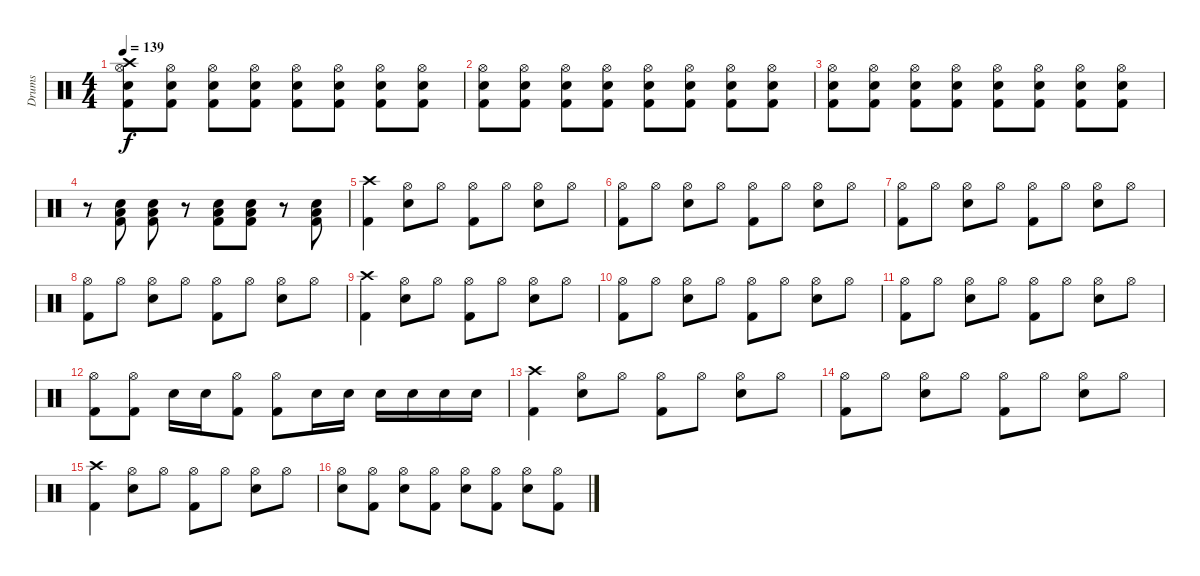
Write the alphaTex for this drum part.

\track ("Drums" "Drums") {instrument percussion}
\staff {score}
\articulation defaults
\ts (4 4)
\tempo 139
\clef neutral
\ks c
("Crash high (hit)" "Hi-Hat (open)" "Electric Snare (hit)" "Kick (hit) 2").8{dy f} ("Hi-Hat (open)" "Electric Snare (hit)" "Kick (hit) 2").8 ("Hi-Hat (open)" "Electric Snare (hit)" "Kick (hit) 2").8 ("Hi-Hat (open)" "Electric Snare (hit)" "Kick (hit) 2").8 ("Hi-Hat (open)" "Electric Snare (hit)" "Kick (hit) 2").8 ("Hi-Hat (open)" "Electric Snare (hit)" "Kick (hit) 2").8 ("Hi-Hat (open)" "Electric Snare (hit)" "Kick (hit) 2").8 ("Hi-Hat (open)" "Electric Snare (hit)" "Kick (hit) 2").8 |
("Hi-Hat (open)" "Electric Snare (hit)" "Kick (hit) 2").8 ("Hi-Hat (open)" "Electric Snare (hit)" "Kick (hit) 2").8 ("Hi-Hat (open)" "Electric Snare (hit)" "Kick (hit) 2").8 ("Hi-Hat (open)" "Electric Snare (hit)" "Kick (hit) 2").8 ("Hi-Hat (open)" "Electric Snare (hit)" "Kick (hit) 2").8 ("Hi-Hat (open)" "Electric Snare (hit)" "Kick (hit) 2").8 ("Hi-Hat (open)" "Electric Snare (hit)" "Kick (hit) 2").8 ("Hi-Hat (open)" "Electric Snare (hit)" "Kick (hit) 2").8 |
("Hi-Hat (open)" "Electric Snare (hit)" "Kick (hit) 2").8 ("Hi-Hat (open)" "Electric Snare (hit)" "Kick (hit) 2").8 ("Hi-Hat (open)" "Electric Snare (hit)" "Kick (hit) 2").8 ("Hi-Hat (open)" "Electric Snare (hit)" "Kick (hit) 2").8 ("Hi-Hat (open)" "Electric Snare (hit)" "Kick (hit) 2").8 ("Hi-Hat (open)" "Electric Snare (hit)" "Kick (hit) 2").8 ("Hi-Hat (open)" "Electric Snare (hit)" "Kick (hit) 2").8 ("Hi-Hat (open)" "Electric Snare (hit)" "Kick (hit) 2").8 |
r.8 ("Electric Snare (hit)" "Kick (hit) 2" "Low Floor Tom (hit)").8 ("Electric Snare (hit)" "Kick (hit) 2" "Low Floor Tom (hit)").8 r.8 ("Electric Snare (hit)" "Kick (hit) 2" "Low Floor Tom (hit)").8 ("Electric Snare (hit)" "Kick (hit) 2" "Low Floor Tom (hit)").8 r.8 ("Electric Snare (hit)" "Kick (hit) 2" "Low Floor Tom (hit)").8 |
("Crash high (hit)" "Kick (hit) 2").4 ("Hi-Hat (open)" "Electric Snare (hit)").8 "Hi-Hat (open)".8 ("Hi-Hat (open)" "Kick (hit) 2").8 "Hi-Hat (open)".8 ("Hi-Hat (open)" "Electric Snare (hit)").8 "Hi-Hat (open)".8 |
("Hi-Hat (open)" "Kick (hit) 2").8 "Hi-Hat (open)".8 ("Hi-Hat (open)" "Electric Snare (hit)").8 "Hi-Hat (open)".8 ("Hi-Hat (open)" "Kick (hit) 2").8 "Hi-Hat (open)".8 ("Hi-Hat (open)" "Electric Snare (hit)").8 "Hi-Hat (open)".8 |
("Hi-Hat (open)" "Kick (hit) 2").8 "Hi-Hat (open)".8 ("Hi-Hat (open)" "Electric Snare (hit)").8 "Hi-Hat (open)".8 ("Hi-Hat (open)" "Kick (hit) 2").8 "Hi-Hat (open)".8 ("Hi-Hat (open)" "Electric Snare (hit)").8 "Hi-Hat (open)".8 |
("Hi-Hat (open)" "Kick (hit) 2").8 "Hi-Hat (open)".8 ("Hi-Hat (open)" "Electric Snare (hit)").8 "Hi-Hat (open)".8 ("Hi-Hat (open)" "Kick (hit) 2").8 "Hi-Hat (open)".8 ("Hi-Hat (open)" "Electric Snare (hit)").8 "Hi-Hat (open)".8 |
("Crash high (hit)" "Kick (hit) 2").4 ("Hi-Hat (open)" "Electric Snare (hit)").8 "Hi-Hat (open)".8 ("Hi-Hat (open)" "Kick (hit) 2").8 "Hi-Hat (open)".8 ("Hi-Hat (open)" "Electric Snare (hit)").8 "Hi-Hat (open)".8 |
("Hi-Hat (open)" "Kick (hit) 2").8 "Hi-Hat (open)".8 ("Hi-Hat (open)" "Electric Snare (hit)").8 "Hi-Hat (open)".8 ("Hi-Hat (open)" "Kick (hit) 2").8 "Hi-Hat (open)".8 ("Hi-Hat (open)" "Electric Snare (hit)").8 "Hi-Hat (open)".8 |
("Hi-Hat (open)" "Kick (hit) 2").8 "Hi-Hat (open)".8 ("Hi-Hat (open)" "Electric Snare (hit)").8 "Hi-Hat (open)".8 ("Hi-Hat (open)" "Kick (hit) 2").8 "Hi-Hat (open)".8 ("Hi-Hat (open)" "Electric Snare (hit)").8 "Hi-Hat (open)".8 |
("Hi-Hat (open)" "Kick (hit) 2").8 ("Hi-Hat (open)" "Kick (hit) 2").8 "Electric Snare (hit)".16 "Electric Snare (hit)".16 ("Hi-Hat (open)" "Kick (hit) 2").8 ("Hi-Hat (open)" "Kick (hit) 2").8 "Electric Snare (hit)".16 "Electric Snare (hit)".16 "Electric Snare (hit)".16 "Electric Snare (hit)".16 "Electric Snare (hit)".16 "Electric Snare (hit)".16 |
("Crash high (hit)" "Kick (hit) 2").4 ("Hi-Hat (open)" "Electric Snare (hit)").8 "Hi-Hat (open)".8 ("Hi-Hat (open)" "Kick (hit) 2").8 "Hi-Hat (open)".8 ("Hi-Hat (open)" "Electric Snare (hit)").8 "Hi-Hat (open)".8 |
("Hi-Hat (open)" "Kick (hit) 2").8 "Hi-Hat (open)".8 ("Hi-Hat (open)" "Electric Snare (hit)").8 "Hi-Hat (open)".8 ("Hi-Hat (open)" "Kick (hit) 2").8 "Hi-Hat (open)".8 ("Hi-Hat (open)" "Electric Snare (hit)").8 "Hi-Hat (open)".8 |
("Crash high (hit)" "Kick (hit) 2").4 ("Hi-Hat (open)" "Electric Snare (hit)").8 "Hi-Hat (open)".8 ("Hi-Hat (open)" "Kick (hit) 2").8 "Hi-Hat (open)".8 ("Hi-Hat (open)" "Electric Snare (hit)").8 "Hi-Hat (open)".8 |
("Hi-Hat (open)" "Electric Snare (hit)").8 ("Hi-Hat (open)" "Kick (hit) 2").8 ("Hi-Hat (open)" "Electric Snare (hit)").8 ("Hi-Hat (open)" "Kick (hit) 2").8 ("Hi-Hat (open)" "Electric Snare (hit)").8 ("Hi-Hat (open)" "Kick (hit) 2").8 ("Hi-Hat (open)" "Electric Snare (hit)").8 ("Hi-Hat (open)" "Kick (hit) 2").8
